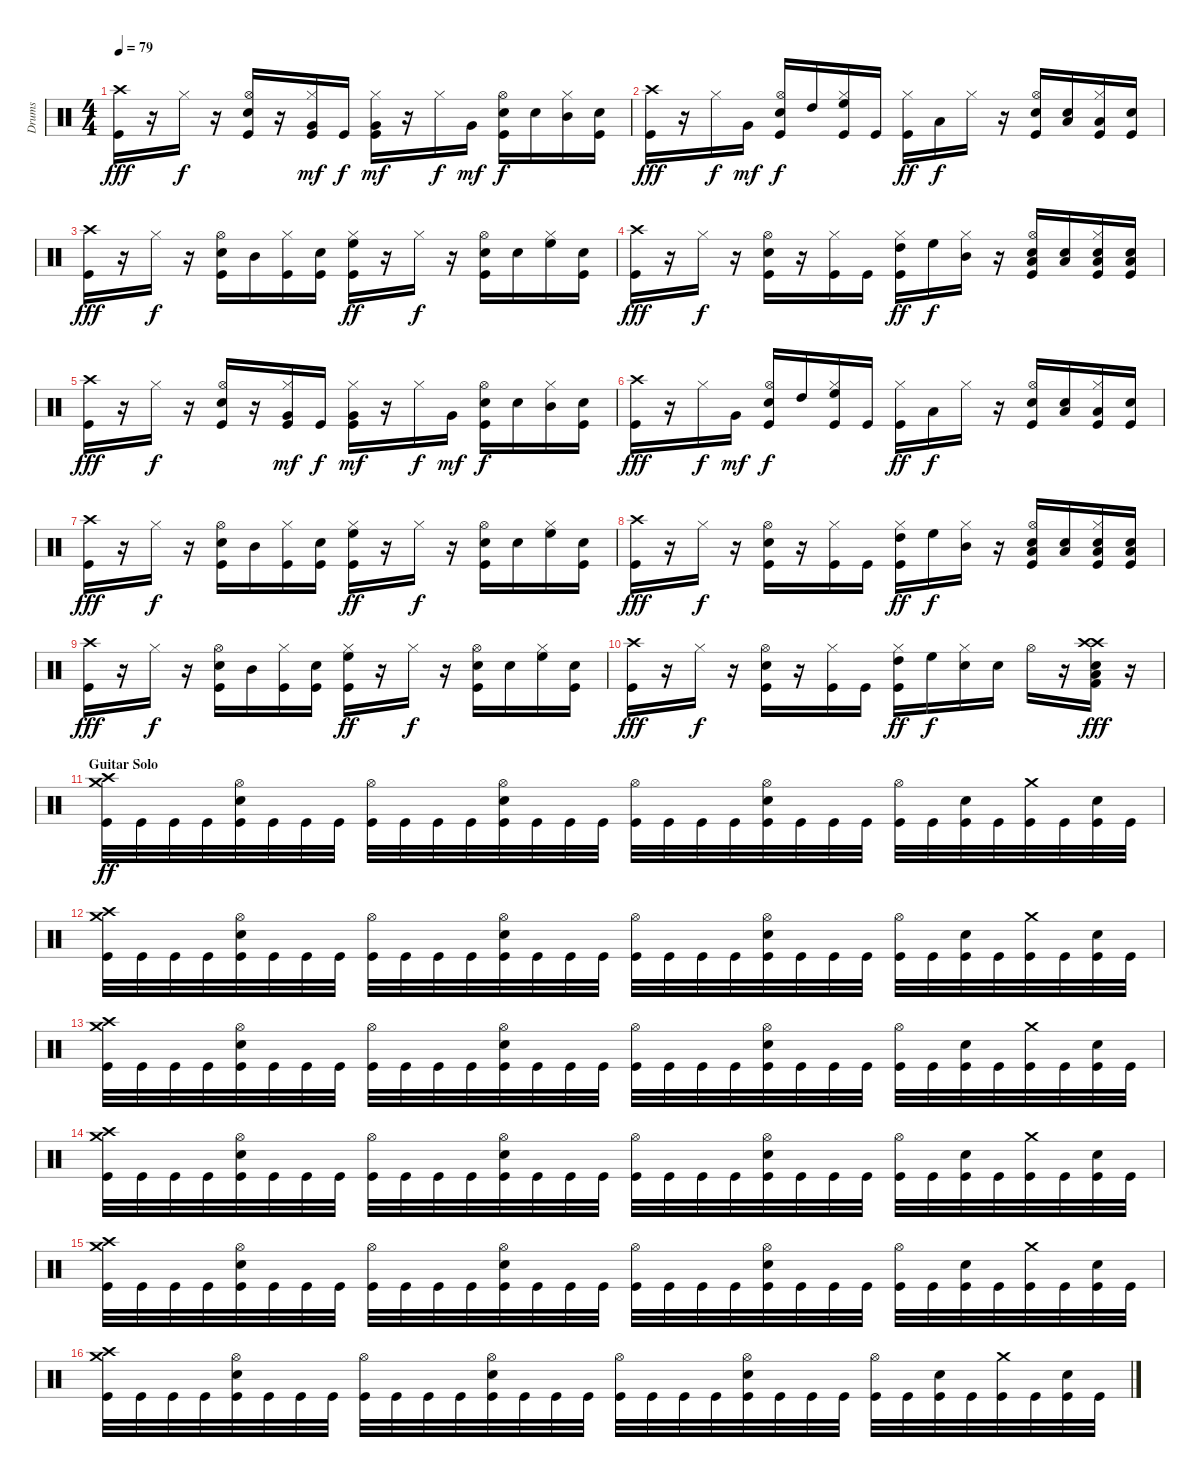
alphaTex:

\track ("Drums" "Drums") {instrument percussion}
\staff {score}
\articulation defaults
\ts (4 4)
\tempo 79
\clef neutral
\ks c
("Crash high (hit)" "Kick (hit)").16{dy fff volume 11} r.16 "Hi-Hat (closed)".16{dy f} r.16 ("Hi-Hat (open)" "Electric Snare (hit)" "Kick (hit)").16 r.16 ("Hi-Hat (closed)" "Very Low Tom (hit)" "Kick (hit)").16{dy mf} "Kick (hit)".16{dy f} ("Hi-Hat (closed)" "Very Low Tom (hit)" "Kick (hit)").16{dy mf} r.16 "Hi-Hat (closed)".16{dy f} "Very Low Tom (hit)".16{dy mf} ("Hi-Hat (open)" "Electric Snare (hit)" "Kick (hit)").16{dy f} "Electric Snare (hit)".16 ("Hi-Hat (closed)" "Mid Tom (hit)").16 ("Electric Snare (hit)" "Kick (hit)").16 |
("Crash high (hit)" "Kick (hit)").16{dy fff} r.16 "Hi-Hat (closed)".16{dy f} "Very Low Tom (hit)".16{dy mf} ("Hi-Hat (open)" "Electric Snare (hit)" "Kick (hit)").16{dy f} "High Tom (hit)".16 ("Hi-Hat (closed)" "High Floor Tom (hit)" "Kick (hit)").16 "Kick (hit)".16 ("Hi-Hat (closed)" "Kick (hit)").16{dy ff} "Low Tom (hit)".16{dy f} "Hi-Hat (closed)".16 r.16 ("Hi-Hat (open)" "Electric Snare (hit)" "Kick (hit)").16 ("Low Tom (hit)" "Electric Snare (hit)").16 ("Hi-Hat (closed)" "Low Tom (hit)" "Kick (hit)").16 ("Electric Snare (hit)" "Kick (hit)").16 |
("Crash high (hit)" "Kick (hit)").16{dy fff volume 11} r.16 "Hi-Hat (closed)".16{dy f} r.16 ("Hi-Hat (open)" "Electric Snare (hit)" "Kick (hit)").16 "Mid Tom (hit)".16 ("Hi-Hat (closed)" "Kick (hit)").16 ("Electric Snare (hit)" "Kick (hit)").16 ("Hi-Hat (closed)" "High Floor Tom (hit)" "Kick (hit)").16{dy ff} r.16 "Hi-Hat (closed)".16{dy f} r.16 ("Hi-Hat (open)" "Electric Snare (hit)" "Kick (hit)").16 "Electric Snare (hit)".16 ("Hi-Hat (closed)" "High Floor Tom (hit)").16 ("Electric Snare (hit)" "Kick (hit)").16 |
("Crash high (hit)" "Kick (hit)").16{dy fff} r.16 "Hi-Hat (closed)".16{dy f} r.16 ("Hi-Hat (open)" "Electric Snare (hit)" "Kick (hit)").16 r.16 ("Hi-Hat (closed)" "Kick (hit)").16 "Kick (hit)".16 ("Hi-Hat (closed)" "High Tom (hit)" "Kick (hit)").16{dy ff} "High Floor Tom (hit)".16{dy f} ("Hi-Hat (closed)" "Mid Tom (hit)").16 r.16 ("Hi-Hat (open)" "Electric Snare (hit)" "Low Floor Tom (hit)" "Kick (hit)").16 ("Electric Snare (hit)" "Low Floor Tom (hit)").16 ("Hi-Hat (closed)" "Electric Snare (hit)" "Low Floor Tom (hit)" "Kick (hit)").16 ("Electric Snare (hit)" "Low Floor Tom (hit)" "Kick (hit)").16 |
("Crash high (hit)" "Kick (hit)").16{dy fff volume 11} r.16 "Hi-Hat (closed)".16{dy f} r.16 ("Hi-Hat (open)" "Electric Snare (hit)" "Kick (hit)").16 r.16 ("Hi-Hat (closed)" "Very Low Tom (hit)" "Kick (hit)").16{dy mf} "Kick (hit)".16{dy f} ("Hi-Hat (closed)" "Very Low Tom (hit)" "Kick (hit)").16{dy mf} r.16 "Hi-Hat (closed)".16{dy f} "Very Low Tom (hit)".16{dy mf} ("Hi-Hat (open)" "Electric Snare (hit)" "Kick (hit)").16{dy f} "Electric Snare (hit)".16 ("Hi-Hat (closed)" "Mid Tom (hit)").16 ("Electric Snare (hit)" "Kick (hit)").16 |
("Crash high (hit)" "Kick (hit)").16{dy fff} r.16 "Hi-Hat (closed)".16{dy f} "Very Low Tom (hit)".16{dy mf} ("Hi-Hat (open)" "Electric Snare (hit)" "Kick (hit)").16{dy f} "High Tom (hit)".16 ("Hi-Hat (closed)" "High Floor Tom (hit)" "Kick (hit)").16 "Kick (hit)".16 ("Hi-Hat (closed)" "Kick (hit)").16{dy ff} "Low Tom (hit)".16{dy f} "Hi-Hat (closed)".16 r.16 ("Hi-Hat (open)" "Electric Snare (hit)" "Kick (hit)").16 ("Low Tom (hit)" "Electric Snare (hit)").16 ("Hi-Hat (closed)" "Low Tom (hit)" "Kick (hit)").16 ("Electric Snare (hit)" "Kick (hit)").16 |
("Crash high (hit)" "Kick (hit)").16{dy fff volume 11} r.16 "Hi-Hat (closed)".16{dy f} r.16 ("Hi-Hat (open)" "Electric Snare (hit)" "Kick (hit)").16 "Mid Tom (hit)".16 ("Hi-Hat (closed)" "Kick (hit)").16 ("Electric Snare (hit)" "Kick (hit)").16 ("Hi-Hat (closed)" "High Floor Tom (hit)" "Kick (hit)").16{dy ff} r.16 "Hi-Hat (closed)".16{dy f} r.16 ("Hi-Hat (open)" "Electric Snare (hit)" "Kick (hit)").16 "Electric Snare (hit)".16 ("Hi-Hat (closed)" "High Floor Tom (hit)").16 ("Electric Snare (hit)" "Kick (hit)").16 |
("Crash high (hit)" "Kick (hit)").16{dy fff} r.16 "Hi-Hat (closed)".16{dy f} r.16 ("Hi-Hat (open)" "Electric Snare (hit)" "Kick (hit)").16 r.16 ("Hi-Hat (closed)" "Kick (hit)").16 "Kick (hit)".16 ("Hi-Hat (closed)" "High Tom (hit)" "Kick (hit)").16{dy ff} "High Floor Tom (hit)".16{dy f} ("Hi-Hat (closed)" "Mid Tom (hit)").16 r.16 ("Hi-Hat (open)" "Electric Snare (hit)" "Low Floor Tom (hit)" "Kick (hit)").16 ("Electric Snare (hit)" "Low Floor Tom (hit)").16 ("Hi-Hat (closed)" "Electric Snare (hit)" "Low Floor Tom (hit)" "Kick (hit)").16 ("Electric Snare (hit)" "Low Floor Tom (hit)" "Kick (hit)").16 |
("Crash high (hit)" "Kick (hit)").16{dy fff volume 11} r.16 "Hi-Hat (closed)".16{dy f} r.16 ("Hi-Hat (open)" "Electric Snare (hit)" "Kick (hit)").16 "Mid Tom (hit)".16 ("Hi-Hat (closed)" "Kick (hit)").16 ("Electric Snare (hit)" "Kick (hit)").16 ("Hi-Hat (closed)" "High Floor Tom (hit)" "Kick (hit)").16{dy ff} r.16 "Hi-Hat (closed)".16{dy f} r.16 ("Hi-Hat (open)" "Electric Snare (hit)" "Kick (hit)").16 "Electric Snare (hit)".16 ("Hi-Hat (closed)" "High Floor Tom (hit)").16 ("Electric Snare (hit)" "Kick (hit)").16 |
("Crash high (hit)" "Kick (hit)").16{dy fff} r.16 "Hi-Hat (closed)".16{dy f} r.16 ("Hi-Hat (open)" "Electric Snare (hit)" "Kick (hit)").16 r.16 ("Hi-Hat (closed)" "Kick (hit)").16 "Kick (hit)".16 ("Hi-Hat (closed)" "High Tom (hit)" "Kick (hit)").16{dy ff} "High Floor Tom (hit)".16{dy f} ("Hi-Hat (closed)" "Electric Snare (hit)").16 "Electric Snare (hit)".16 "Hi-Hat (open)".16 r.16 ("Crash high (hit)" "Crash high (hit)" "Electric Snare (hit)" "Low Floor Tom (hit)" "Kick (hit) 2").16{dy fff} r.16 |
\section ("" "Guitar Solo")
("Crash high (hit)" "Crash medium (hit)" "Kick (hit)").32{dy ff} "Kick (hit)".32 "Kick (hit)".32 "Kick (hit)".32 ("Hi-Hat (open)" "Electric Snare (hit)" "Kick (hit)").32 "Kick (hit)".32 "Kick (hit)".32 "Kick (hit)".32 ("Hi-Hat (open)" "Kick (hit)").32 "Kick (hit)".32 "Kick (hit)".32 "Kick (hit)".32 ("Hi-Hat (open)" "Electric Snare (hit)" "Kick (hit)").32 "Kick (hit)".32 "Kick (hit)".32 "Kick (hit)".32 ("Hi-Hat (open)" "Kick (hit)").32 "Kick (hit)".32 "Kick (hit)".32 "Kick (hit)".32 ("Hi-Hat (open)" "Electric Snare (hit)" "Kick (hit)").32 "Kick (hit)".32 "Kick (hit)".32 "Kick (hit)".32 ("Hi-Hat (open)" "Kick (hit)").32 "Kick (hit)".32 ("Electric Snare (hit)" "Kick (hit)").32 "Kick (hit)".32 ("Crash medium (hit)" "Kick (hit)").32 "Kick (hit)".32 ("Electric Snare (hit)" "Kick (hit)").32 "Kick (hit)".32 |
("Crash high (hit)" "Crash medium (hit)" "Kick (hit)").32 "Kick (hit)".32 "Kick (hit)".32 "Kick (hit)".32 ("Hi-Hat (open)" "Electric Snare (hit)" "Kick (hit)").32 "Kick (hit)".32 "Kick (hit)".32 "Kick (hit)".32 ("Hi-Hat (open)" "Kick (hit)").32 "Kick (hit)".32 "Kick (hit)".32 "Kick (hit)".32 ("Hi-Hat (open)" "Electric Snare (hit)" "Kick (hit)").32 "Kick (hit)".32 "Kick (hit)".32 "Kick (hit)".32 ("Hi-Hat (open)" "Kick (hit)").32 "Kick (hit)".32 "Kick (hit)".32 "Kick (hit)".32 ("Hi-Hat (open)" "Electric Snare (hit)" "Kick (hit)").32 "Kick (hit)".32 "Kick (hit)".32 "Kick (hit)".32 ("Hi-Hat (open)" "Kick (hit)").32 "Kick (hit)".32 ("Electric Snare (hit)" "Kick (hit)").32 "Kick (hit)".32 ("Crash medium (hit)" "Kick (hit)").32 "Kick (hit)".32 ("Electric Snare (hit)" "Kick (hit)").32 "Kick (hit)".32 |
("Crash high (hit)" "Crash medium (hit)" "Kick (hit)").32 "Kick (hit)".32 "Kick (hit)".32 "Kick (hit)".32 ("Hi-Hat (open)" "Electric Snare (hit)" "Kick (hit)").32 "Kick (hit)".32 "Kick (hit)".32 "Kick (hit)".32 ("Hi-Hat (open)" "Kick (hit)").32 "Kick (hit)".32 "Kick (hit)".32 "Kick (hit)".32 ("Hi-Hat (open)" "Electric Snare (hit)" "Kick (hit)").32 "Kick (hit)".32 "Kick (hit)".32 "Kick (hit)".32 ("Hi-Hat (open)" "Kick (hit)").32 "Kick (hit)".32 "Kick (hit)".32 "Kick (hit)".32 ("Hi-Hat (open)" "Electric Snare (hit)" "Kick (hit)").32 "Kick (hit)".32 "Kick (hit)".32 "Kick (hit)".32 ("Hi-Hat (open)" "Kick (hit)").32 "Kick (hit)".32 ("Electric Snare (hit)" "Kick (hit)").32 "Kick (hit)".32 ("Crash medium (hit)" "Kick (hit)").32 "Kick (hit)".32 ("Electric Snare (hit)" "Kick (hit)").32 "Kick (hit)".32 |
("Crash high (hit)" "Crash medium (hit)" "Kick (hit)").32 "Kick (hit)".32 "Kick (hit)".32 "Kick (hit)".32 ("Hi-Hat (open)" "Electric Snare (hit)" "Kick (hit)").32 "Kick (hit)".32 "Kick (hit)".32 "Kick (hit)".32 ("Hi-Hat (open)" "Kick (hit)").32 "Kick (hit)".32 "Kick (hit)".32 "Kick (hit)".32 ("Hi-Hat (open)" "Electric Snare (hit)" "Kick (hit)").32 "Kick (hit)".32 "Kick (hit)".32 "Kick (hit)".32 ("Hi-Hat (open)" "Kick (hit)").32 "Kick (hit)".32 "Kick (hit)".32 "Kick (hit)".32 ("Hi-Hat (open)" "Electric Snare (hit)" "Kick (hit)").32 "Kick (hit)".32 "Kick (hit)".32 "Kick (hit)".32 ("Hi-Hat (open)" "Kick (hit)").32 "Kick (hit)".32 ("Electric Snare (hit)" "Kick (hit)").32 "Kick (hit)".32 ("Crash medium (hit)" "Kick (hit)").32 "Kick (hit)".32 ("Electric Snare (hit)" "Kick (hit)").32 "Kick (hit)".32 |
("Crash high (hit)" "Crash medium (hit)" "Kick (hit)").32 "Kick (hit)".32 "Kick (hit)".32 "Kick (hit)".32 ("Hi-Hat (open)" "Electric Snare (hit)" "Kick (hit)").32 "Kick (hit)".32 "Kick (hit)".32 "Kick (hit)".32 ("Hi-Hat (open)" "Kick (hit)").32 "Kick (hit)".32 "Kick (hit)".32 "Kick (hit)".32 ("Hi-Hat (open)" "Electric Snare (hit)" "Kick (hit)").32 "Kick (hit)".32 "Kick (hit)".32 "Kick (hit)".32 ("Hi-Hat (open)" "Kick (hit)").32 "Kick (hit)".32 "Kick (hit)".32 "Kick (hit)".32 ("Hi-Hat (open)" "Electric Snare (hit)" "Kick (hit)").32 "Kick (hit)".32 "Kick (hit)".32 "Kick (hit)".32 ("Hi-Hat (open)" "Kick (hit)").32 "Kick (hit)".32 ("Electric Snare (hit)" "Kick (hit)").32 "Kick (hit)".32 ("Crash medium (hit)" "Kick (hit)").32 "Kick (hit)".32 ("Electric Snare (hit)" "Kick (hit)").32 "Kick (hit)".32 |
("Crash high (hit)" "Crash medium (hit)" "Kick (hit)").32 "Kick (hit)".32 "Kick (hit)".32 "Kick (hit)".32 ("Hi-Hat (open)" "Electric Snare (hit)" "Kick (hit)").32 "Kick (hit)".32 "Kick (hit)".32 "Kick (hit)".32 ("Hi-Hat (open)" "Kick (hit)").32 "Kick (hit)".32 "Kick (hit)".32 "Kick (hit)".32 ("Hi-Hat (open)" "Electric Snare (hit)" "Kick (hit)").32 "Kick (hit)".32 "Kick (hit)".32 "Kick (hit)".32 ("Hi-Hat (open)" "Kick (hit)").32 "Kick (hit)".32 "Kick (hit)".32 "Kick (hit)".32 ("Hi-Hat (open)" "Electric Snare (hit)" "Kick (hit)").32 "Kick (hit)".32 "Kick (hit)".32 "Kick (hit)".32 ("Hi-Hat (open)" "Kick (hit)").32 "Kick (hit)".32 ("Electric Snare (hit)" "Kick (hit)").32 "Kick (hit)".32 ("Crash medium (hit)" "Kick (hit)").32 "Kick (hit)".32 ("Electric Snare (hit)" "Kick (hit)").32 "Kick (hit)".32
